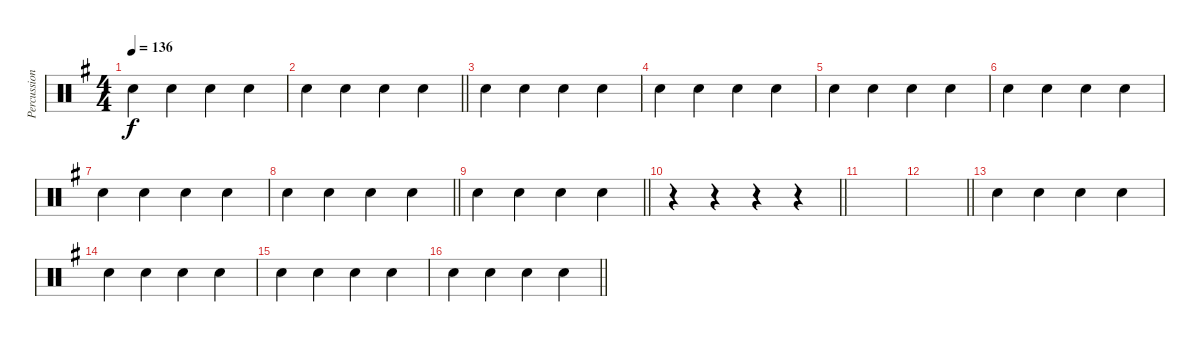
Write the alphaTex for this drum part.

\track ("Percussions" "Percussion") {instrument percussion}
\staff {score}
\articulation defaults
\ts (4 4)
\tempo 136
\clef neutral
\ks g "Hand Clap (hit)".4{dy f} "Hand Clap (hit)".4 "Hand Clap (hit)".4 "Hand Clap (hit)".4
|
\barLineRight lightlight "Hand Clap (hit)".4 "Hand Clap (hit)".4 "Hand Clap (hit)".4 "Hand Clap (hit)".4
|
"Hand Clap (hit)".4 "Hand Clap (hit)".4 "Hand Clap (hit)".4 "Hand Clap (hit)".4 |
"Hand Clap (hit)".4 "Hand Clap (hit)".4 "Hand Clap (hit)".4 "Hand Clap (hit)".4 |
"Hand Clap (hit)".4 "Hand Clap (hit)".4 "Hand Clap (hit)".4 "Hand Clap (hit)".4 |
"Hand Clap (hit)".4 "Hand Clap (hit)".4 "Hand Clap (hit)".4 "Hand Clap (hit)".4 |
"Hand Clap (hit)".4 "Hand Clap (hit)".4 "Hand Clap (hit)".4 "Hand Clap (hit)".4 |
\barLineRight lightlight "Hand Clap (hit)".4 "Hand Clap (hit)".4 "Hand Clap (hit)".4 "Hand Clap (hit)".4
|
\barLineRight lightlight "Hand Clap (hit)".4{volume 0} "Hand Clap (hit)".4 "Hand Clap (hit)".4 "Hand Clap (hit)".4
|
\barLineRight lightlight
r.4 r.4 r.4 r.4 |
|
\barLineRight lightlight
|
"Hand Clap (hit)".4{volume 5} "Hand Clap (hit)".4 "Hand Clap (hit)".4 "Hand Clap (hit)".4 |
"Hand Clap (hit)".4 "Hand Clap (hit)".4 "Hand Clap (hit)".4 "Hand Clap (hit)".4 |
"Hand Clap (hit)".4 "Hand Clap (hit)".4 "Hand Clap (hit)".4 "Hand Clap (hit)".4 |
\barLineRight lightlight "Hand Clap (hit)".4 "Hand Clap (hit)".4 "Hand Clap (hit)".4 "Hand Clap (hit)".4
